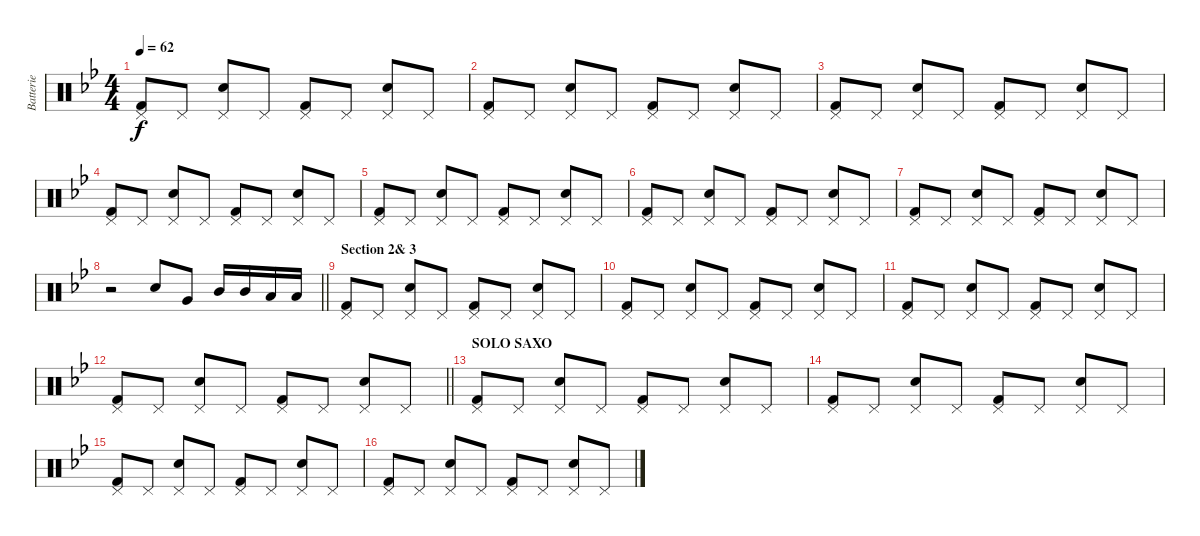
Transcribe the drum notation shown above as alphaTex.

\track ("Batterie" "Batterie") {instrument percussion}
\staff {score}
\articulation defaults
\ts (4 4)
\tempo 62
\clef neutral
\ks bb
("Kick (hit) 2" "Pedal Hi-Hat (hit)").8{dy f} "Pedal Hi-Hat (hit)".8 ("Pedal Hi-Hat (hit)" "Snare (hit) 2").8 "Pedal Hi-Hat (hit)".8 ("Kick (hit) 2" "Pedal Hi-Hat (hit)").8 "Pedal Hi-Hat (hit)".8 ("Pedal Hi-Hat (hit)" "Snare (hit) 2").8 "Pedal Hi-Hat (hit)".8 |
("Kick (hit) 2" "Pedal Hi-Hat (hit)").8 "Pedal Hi-Hat (hit)".8 ("Pedal Hi-Hat (hit)" "Snare (hit) 2").8 "Pedal Hi-Hat (hit)".8 ("Kick (hit) 2" "Pedal Hi-Hat (hit)").8 "Pedal Hi-Hat (hit)".8 ("Pedal Hi-Hat (hit)" "Snare (hit) 2").8 "Pedal Hi-Hat (hit)".8 |
("Kick (hit) 2" "Pedal Hi-Hat (hit)").8 "Pedal Hi-Hat (hit)".8 ("Pedal Hi-Hat (hit)" "Snare (hit) 2").8 "Pedal Hi-Hat (hit)".8 ("Kick (hit) 2" "Pedal Hi-Hat (hit)").8 "Pedal Hi-Hat (hit)".8 ("Pedal Hi-Hat (hit)" "Snare (hit) 2").8 "Pedal Hi-Hat (hit)".8 |
("Kick (hit) 2" "Pedal Hi-Hat (hit)").8 "Pedal Hi-Hat (hit)".8 ("Pedal Hi-Hat (hit)" "Snare (hit) 2").8 "Pedal Hi-Hat (hit)".8 ("Kick (hit) 2" "Pedal Hi-Hat (hit)").8 "Pedal Hi-Hat (hit)".8 ("Pedal Hi-Hat (hit)" "Snare (hit) 2").8 "Pedal Hi-Hat (hit)".8 |
("Kick (hit) 2" "Pedal Hi-Hat (hit)").8 "Pedal Hi-Hat (hit)".8 ("Pedal Hi-Hat (hit)" "Snare (hit) 2").8 "Pedal Hi-Hat (hit)".8 ("Kick (hit) 2" "Pedal Hi-Hat (hit)").8 "Pedal Hi-Hat (hit)".8 ("Pedal Hi-Hat (hit)" "Snare (hit) 2").8 "Pedal Hi-Hat (hit)".8 |
("Kick (hit) 2" "Pedal Hi-Hat (hit)").8 "Pedal Hi-Hat (hit)".8 ("Pedal Hi-Hat (hit)" "Snare (hit) 2").8 "Pedal Hi-Hat (hit)".8 ("Kick (hit) 2" "Pedal Hi-Hat (hit)").8 "Pedal Hi-Hat (hit)".8 ("Pedal Hi-Hat (hit)" "Snare (hit) 2").8 "Pedal Hi-Hat (hit)".8 |
("Kick (hit) 2" "Pedal Hi-Hat (hit)").8 "Pedal Hi-Hat (hit)".8 ("Pedal Hi-Hat (hit)" "Snare (hit) 2").8 "Pedal Hi-Hat (hit)".8 ("Kick (hit) 2" "Pedal Hi-Hat (hit)").8 "Pedal Hi-Hat (hit)".8 ("Pedal Hi-Hat (hit)" "Snare (hit) 2").8 "Pedal Hi-Hat (hit)".8 |
\barLineRight lightlight
r.2 "Snare (hit) 2".8 "Very Low Tom (hit)".8 "Mid Tom (hit)".16 "Mid Tom (hit)".16 "Low Tom (hit)".16 "Low Tom (hit)".16 |
\section ("" "Section 2& 3")
("Kick (hit) 2" "Pedal Hi-Hat (hit)").8 "Pedal Hi-Hat (hit)".8 ("Pedal Hi-Hat (hit)" "Snare (hit) 2").8 "Pedal Hi-Hat (hit)".8 ("Kick (hit) 2" "Pedal Hi-Hat (hit)").8 "Pedal Hi-Hat (hit)".8 ("Pedal Hi-Hat (hit)" "Snare (hit) 2").8 "Pedal Hi-Hat (hit)".8 |
("Kick (hit) 2" "Pedal Hi-Hat (hit)").8 "Pedal Hi-Hat (hit)".8 ("Pedal Hi-Hat (hit)" "Snare (hit) 2").8 "Pedal Hi-Hat (hit)".8 ("Kick (hit) 2" "Pedal Hi-Hat (hit)").8 "Pedal Hi-Hat (hit)".8 ("Pedal Hi-Hat (hit)" "Snare (hit) 2").8 "Pedal Hi-Hat (hit)".8 |
("Kick (hit) 2" "Pedal Hi-Hat (hit)").8 "Pedal Hi-Hat (hit)".8 ("Pedal Hi-Hat (hit)" "Snare (hit) 2").8 "Pedal Hi-Hat (hit)".8 ("Kick (hit) 2" "Pedal Hi-Hat (hit)").8 "Pedal Hi-Hat (hit)".8 ("Pedal Hi-Hat (hit)" "Snare (hit) 2").8 "Pedal Hi-Hat (hit)".8 |
\barLineRight lightlight
("Kick (hit) 2" "Pedal Hi-Hat (hit)").8 "Pedal Hi-Hat (hit)".8 ("Pedal Hi-Hat (hit)" "Snare (hit) 2").8 "Pedal Hi-Hat (hit)".8 ("Kick (hit) 2" "Pedal Hi-Hat (hit)").8 "Pedal Hi-Hat (hit)".8 ("Pedal Hi-Hat (hit)" "Snare (hit) 2").8 "Pedal Hi-Hat (hit)".8 |
\section ("" "SOLO SAXO")
("Kick (hit) 2" "Pedal Hi-Hat (hit)").8 "Pedal Hi-Hat (hit)".8 ("Pedal Hi-Hat (hit)" "Snare (hit) 2").8 "Pedal Hi-Hat (hit)".8 ("Kick (hit) 2" "Pedal Hi-Hat (hit)").8 "Pedal Hi-Hat (hit)".8 ("Pedal Hi-Hat (hit)" "Snare (hit) 2").8 "Pedal Hi-Hat (hit)".8 |
("Kick (hit) 2" "Pedal Hi-Hat (hit)").8 "Pedal Hi-Hat (hit)".8 ("Pedal Hi-Hat (hit)" "Snare (hit) 2").8 "Pedal Hi-Hat (hit)".8 ("Kick (hit) 2" "Pedal Hi-Hat (hit)").8 "Pedal Hi-Hat (hit)".8 ("Pedal Hi-Hat (hit)" "Snare (hit) 2").8 "Pedal Hi-Hat (hit)".8 |
("Kick (hit) 2" "Pedal Hi-Hat (hit)").8 "Pedal Hi-Hat (hit)".8 ("Pedal Hi-Hat (hit)" "Snare (hit) 2").8 "Pedal Hi-Hat (hit)".8 ("Kick (hit) 2" "Pedal Hi-Hat (hit)").8 "Pedal Hi-Hat (hit)".8 ("Pedal Hi-Hat (hit)" "Snare (hit) 2").8 "Pedal Hi-Hat (hit)".8 |
("Kick (hit) 2" "Pedal Hi-Hat (hit)").8 "Pedal Hi-Hat (hit)".8 ("Pedal Hi-Hat (hit)" "Snare (hit) 2").8 "Pedal Hi-Hat (hit)".8 ("Kick (hit) 2" "Pedal Hi-Hat (hit)").8 "Pedal Hi-Hat (hit)".8 ("Pedal Hi-Hat (hit)" "Snare (hit) 2").8 "Pedal Hi-Hat (hit)".8
